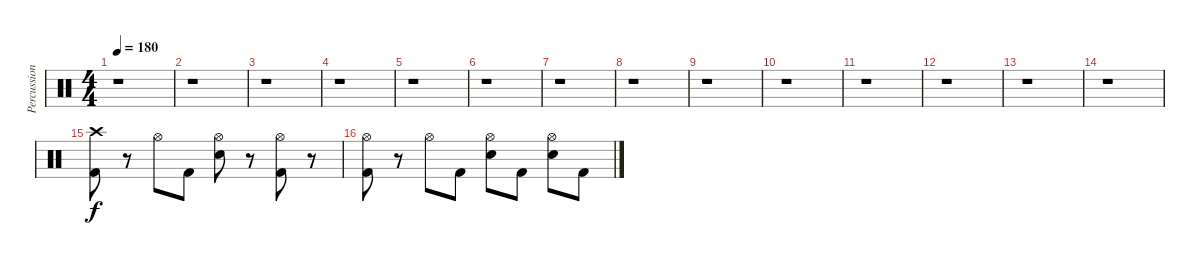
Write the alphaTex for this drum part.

\track ("Percussion" "Percussion") {instrument percussion}
\staff {score}
\articulation defaults
\ts (4 4)
\tempo 180
\clef neutral
\ks c
r.1{dy f} |
r.1 |
r.1 |
r.1 |
r.1 |
r.1 |
r.1 |
r.1 |
r.1 |
r.1 |
r.1 |
r.1 |
r.1 |
r.1 |
("Crash high (hit)" "Kick (hit) 2").8 r.8 "Hi-Hat (open)".8 "Kick (hit) 2".8 ("Hi-Hat (open)" "Electric Snare (hit)").8 r.8 ("Hi-Hat (open)" "Kick (hit) 2").8 r.8 |
("Hi-Hat (open)" "Kick (hit) 2").8 r.8 "Hi-Hat (open)".8 "Kick (hit) 2".8 ("Hi-Hat (open)" "Electric Snare (hit)").8 "Kick (hit) 2".8 ("Hi-Hat (open)" "Electric Snare (hit)").8 "Kick (hit) 2".8
